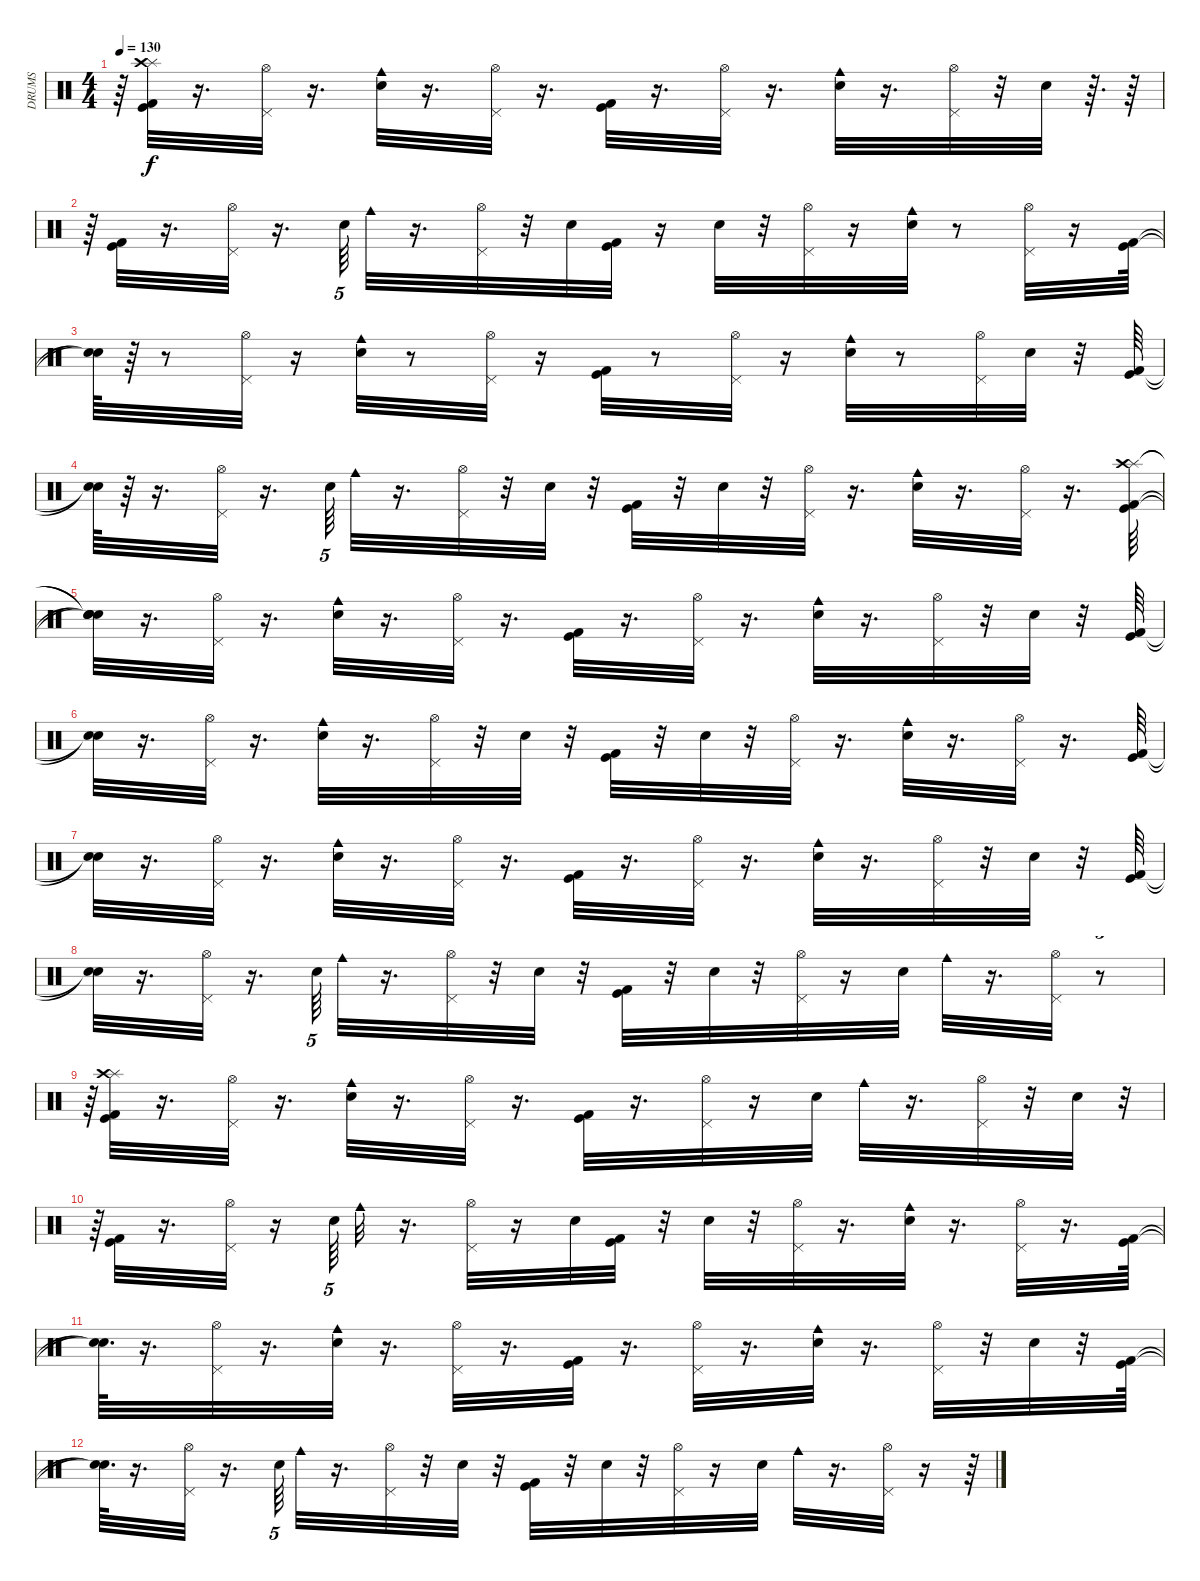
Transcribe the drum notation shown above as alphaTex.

\track ("DRUMS" "DRUMS") {instrument percussion}
\staff {score}
\articulation defaults
\ts (4 4)
\tempo 130
\clef neutral
\ks c
r.64{dy f} ("Splash (hit)" "Kick (hit)" "Kick (hit) 2" "Crash high (hit)").32 r.16{d} ("Pedal Hi-Hat (hit)" "Hi-Hat (open)").32 r.16{d} ("Electric Snare (hit)" "Cowbell medium (hit)").32 r.16{d} ("Pedal Hi-Hat (hit)" "Hi-Hat (open)").32 r.16{d} ("Kick (hit) 2" "Kick (hit)").32 r.16{d} ("Pedal Hi-Hat (hit)" "Hi-Hat (open)").32 r.16{d} ("Electric Snare (hit)" "Cowbell medium (hit)").32 r.16{d} ("Pedal Hi-Hat (hit)" "Hi-Hat (open)").32 r.32 "Electric Snare (hit)".32 r.64{d} r.64 |
r.64 ("Kick (hit)" "Kick (hit) 2").32 r.16{d} ("Pedal Hi-Hat (hit)" "Hi-Hat (open)").32 r.16{d} "Electric Snare (hit)".64{tu (5 4)} "Cowbell medium (hit)".32 r.16{d} ("Pedal Hi-Hat (hit)" "Hi-Hat (open)").32 r.32 "Electric Snare (hit)".32 ("Kick (hit) 2" "Kick (hit)").32 r.16 "Electric Snare (hit)".32 r.32 ("Pedal Hi-Hat (hit)" "Hi-Hat (open)").32 r.16 ("Electric Snare (hit)" "Cowbell medium (hit)").32 r.8 ("Pedal Hi-Hat (hit)" "Hi-Hat (open)").32 r.16 ("Kick (hit)" "Kick (hit) 2").64 |
("Snare (hit)"{t} "Snare (hit)"{t}).64 r.64 r.8 ("Pedal Hi-Hat (hit)" "Hi-Hat (open)").32 r.16 ("Electric Snare (hit)" "Cowbell medium (hit)").32 r.8 ("Pedal Hi-Hat (hit)" "Hi-Hat (open)").32 r.16 ("Kick (hit) 2" "Kick (hit)").32 r.8 ("Pedal Hi-Hat (hit)" "Hi-Hat (open)").32 r.16 ("Electric Snare (hit)" "Cowbell medium (hit)").32 r.8 ("Pedal Hi-Hat (hit)" "Hi-Hat (open)").32 "Electric Snare (hit)".32 r.32 ("Kick (hit)" "Kick (hit) 2").64 |
("Snare (hit)"{t} "Snare (hit)"{t}).64 r.64 r.16{d} ("Pedal Hi-Hat (hit)" "Hi-Hat (open)").32 r.16{d} "Electric Snare (hit)".64{tu (5 4)} "Cowbell medium (hit)".32 r.16{d} ("Pedal Hi-Hat (hit)" "Hi-Hat (open)").32 r.32 "Electric Snare (hit)".32 r.32 ("Kick (hit) 2" "Kick (hit)").32 r.32 "Electric Snare (hit)".32 r.32 ("Pedal Hi-Hat (hit)" "Hi-Hat (open)").32 r.16{d} ("Electric Snare (hit)" "Cowbell medium (hit)").32 r.16{d} ("Pedal Hi-Hat (hit)" "Hi-Hat (open)").32 r.16{d} ("Kick (hit)" "Kick (hit) 2" "Splash (hit)" "Crash high (hit)").64{volume 12} |
("Snare (hit)"{t} "Snare (hit)"{t} "Snare (hit)"{t} "Snare (hit)"{t}).32 r.16{d} ("Pedal Hi-Hat (hit)" "Hi-Hat (open)").32 r.16{d} ("Electric Snare (hit)" "Cowbell medium (hit)").32 r.16{d} ("Pedal Hi-Hat (hit)" "Hi-Hat (open)").32 r.16{d} ("Kick (hit) 2" "Kick (hit)").32 r.16{d} ("Pedal Hi-Hat (hit)" "Hi-Hat (open)").32 r.16{d} ("Electric Snare (hit)" "Cowbell medium (hit)").32 r.16{d} ("Pedal Hi-Hat (hit)" "Hi-Hat (open)").32 r.32 "Electric Snare (hit)".32 r.32 ("Kick (hit)" "Kick (hit) 2").64 |
("Snare (hit)"{t} "Snare (hit)"{t}).32 r.16{d} ("Pedal Hi-Hat (hit)" "Hi-Hat (open)").32 r.16{d} ("Electric Snare (hit)" "Cowbell medium (hit)").32 r.16{d} ("Pedal Hi-Hat (hit)" "Hi-Hat (open)").32 r.32 "Electric Snare (hit)".32 r.32 ("Kick (hit) 2" "Kick (hit)").32 r.32 "Electric Snare (hit)".32 r.32 ("Pedal Hi-Hat (hit)" "Hi-Hat (open)").32 r.16{d} ("Electric Snare (hit)" "Cowbell medium (hit)").32 r.16{d} ("Pedal Hi-Hat (hit)" "Hi-Hat (open)").32 r.16{d} ("Kick (hit)" "Kick (hit) 2").64{volume 10} |
("Snare (hit)"{t} "Snare (hit)"{t}).32 r.16{d} ("Pedal Hi-Hat (hit)" "Hi-Hat (open)").32 r.16{d} ("Electric Snare (hit)" "Cowbell medium (hit)").32 r.16{d} ("Pedal Hi-Hat (hit)" "Hi-Hat (open)").32 r.16{d} ("Kick (hit) 2" "Kick (hit)").32 r.16{d} ("Pedal Hi-Hat (hit)" "Hi-Hat (open)").32 r.16{d} ("Electric Snare (hit)" "Cowbell medium (hit)").32 r.16{d} ("Pedal Hi-Hat (hit)" "Hi-Hat (open)").32 r.32 "Electric Snare (hit)".32 r.32 ("Kick (hit)" "Kick (hit) 2").64 |
("Snare (hit)"{t} "Snare (hit)"{t}).32 r.16{d} ("Pedal Hi-Hat (hit)" "Hi-Hat (open)").32 r.16{d} "Electric Snare (hit)".64{tu (5 4)} "Cowbell medium (hit)".32 r.16{d} ("Pedal Hi-Hat (hit)" "Hi-Hat (open)").32 r.32 "Electric Snare (hit)".32 r.32 ("Kick (hit) 2" "Kick (hit)").32 r.32 "Electric Snare (hit)".32 r.32 ("Pedal Hi-Hat (hit)" "Hi-Hat (open)").32 r.16 "Electric Snare (hit)".32 "Cowbell medium (hit)".32 r.16{d} ("Pedal Hi-Hat (hit)" "Hi-Hat (open)").32 r.8{tu (3 2)} |
r.64{tu (3 2)} ("Splash (hit)" "Kick (hit)" "Kick (hit) 2" "Crash high (hit)").32{volume 6} r.16{d} ("Pedal Hi-Hat (hit)" "Hi-Hat (open)").32 r.16{d} ("Electric Snare (hit)" "Cowbell medium (hit)").32 r.16{d} ("Pedal Hi-Hat (hit)" "Hi-Hat (open)").32 r.16{d} ("Kick (hit) 2" "Kick (hit)").32 r.16{d} ("Pedal Hi-Hat (hit)" "Hi-Hat (open)").32 r.16 "Electric Snare (hit)".32 "Cowbell medium (hit)".32 r.16{d} ("Pedal Hi-Hat (hit)" "Hi-Hat (open)").32 r.32 "Electric Snare (hit)".32 r.32{tu (3 2)} |
r.64{tu (3 2)} ("Kick (hit)" "Kick (hit) 2").32 r.16{d} ("Pedal Hi-Hat (hit)" "Hi-Hat (open)").32 r.16 "Electric Snare (hit)".64{tu (5 4)} "Cowbell medium (hit)".32 r.16{d} ("Pedal Hi-Hat (hit)" "Hi-Hat (open)").32 r.16 "Electric Snare (hit)".32 ("Kick (hit) 2" "Kick (hit)").32 r.32 "Electric Snare (hit)".32 r.32 ("Pedal Hi-Hat (hit)" "Hi-Hat (open)").32 r.16{d} ("Electric Snare (hit)" "Cowbell medium (hit)").32 r.16{d} ("Pedal Hi-Hat (hit)" "Hi-Hat (open)").32 r.16{d} ("Kick (hit)" "Kick (hit) 2").64{volume 4} |
("Snare (hit)"{t} "Snare (hit)"{t}).64{d} r.16{d} ("Pedal Hi-Hat (hit)" "Hi-Hat (open)").32 r.16{d} ("Electric Snare (hit)" "Cowbell medium (hit)").32 r.16{d} ("Pedal Hi-Hat (hit)" "Hi-Hat (open)").32 r.16{d} ("Kick (hit) 2" "Kick (hit)").32 r.16{d} ("Pedal Hi-Hat (hit)" "Hi-Hat (open)").32 r.16{d} ("Electric Snare (hit)" "Cowbell medium (hit)").32 r.16{d} ("Pedal Hi-Hat (hit)" "Hi-Hat (open)").32 r.32 "Electric Snare (hit)".32 r.32 ("Kick (hit)" "Kick (hit) 2").64{volume 1} |
("Snare (hit)"{t} "Snare (hit)"{t}).64{d} r.16{d} ("Pedal Hi-Hat (hit)" "Hi-Hat (open)").32 r.16{d} "Electric Snare (hit)".64{tu (5 4)} "Cowbell medium (hit)".32 r.16{d} ("Pedal Hi-Hat (hit)" "Hi-Hat (open)").32 r.32 "Electric Snare (hit)".32 r.32 ("Kick (hit) 2" "Kick (hit)").32 r.32 "Electric Snare (hit)".32 r.32 ("Pedal Hi-Hat (hit)" "Hi-Hat (open)").32 r.16 "Electric Snare (hit)".32 "Cowbell medium (hit)".32 r.16{d} ("Pedal Hi-Hat (hit)" "Hi-Hat (open)").32 r.16 r.64
